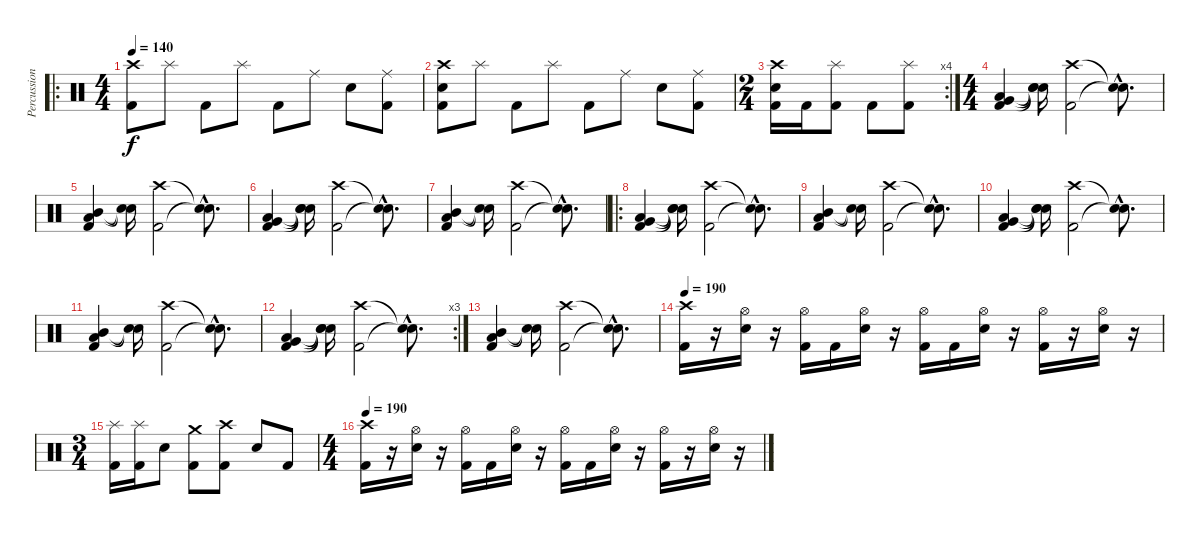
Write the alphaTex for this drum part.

\track ("Percussion" "Percussion") {instrument percussion}
\staff {score}
\articulation defaults
\ro
\ts (4 4)
\tempo 140
\clef neutral
\ks c
("Crash high (hit)" "Kick (hit) 2").8{dy f} "Splash (hit)".8 "Kick (hit) 2".8 "Splash (hit)".8 "Kick (hit) 2".8 "Ride (middle)".8 "Electric Snare (hit)".8 ("Ride (middle)" "Kick (hit) 2").8 |
("Crash high (hit)" "Electric Snare (hit)" "Kick (hit) 2").8 "Splash (hit)".8 "Kick (hit) 2".8 "Splash (hit)".8 "Kick (hit) 2".8 "Ride (middle)".8 "Electric Snare (hit)".8 ("Ride (middle)" "Kick (hit) 2").8 |
\rc 4
\ts (2 4)
("Crash high (hit)" "Electric Snare (hit)" "Kick (hit) 2").16 "Kick (hit) 2".16 ("Splash (hit)" "Kick (hit) 2").8 "Kick (hit) 2".8 ("Splash (hit)" "Kick (hit) 2").8 |
\ts (4 4)
("Very Low Tom (hit)" "Low Floor Tom (hit)" "Kick (hit) 2").4 ("Snare (hit)"{t} "Snare (hit)"{t} "Snare (hit)"{t}).16 ("Crash high (hit)" "Kick (hit) 2").2 ("Snare (hit)"{hac t} "Snare (hit)"{hac t}).8{d} |
("Mid Tom (hit)" "Low Tom (hit)" "Kick (hit) 2").4 ("Snare (hit)"{t} "Snare (hit)"{t}).16 ("Crash high (hit)" "Kick (hit) 2").2 ("Snare (hit)"{hac t} "Snare (hit)"{hac t}).8{d} |
("Very Low Tom (hit)" "Low Floor Tom (hit)" "Kick (hit) 2").4 ("Snare (hit)"{t} "Snare (hit)"{t} "Snare (hit)"{t}).16 ("Crash high (hit)" "Kick (hit) 2").2 ("Snare (hit)"{hac t} "Snare (hit)"{hac t}).8{d} |
("Mid Tom (hit)" "Low Tom (hit)" "Kick (hit) 2").4 ("Snare (hit)"{t} "Snare (hit)"{t}).16 ("Crash high (hit)" "Kick (hit) 2").2 ("Snare (hit)"{hac t} "Snare (hit)"{hac t}).8{d} |
\ro
("Very Low Tom (hit)" "Low Floor Tom (hit)" "Kick (hit) 2").4 ("Snare (hit)"{t} "Snare (hit)"{t} "Snare (hit)"{t}).16 ("Crash high (hit)" "Kick (hit) 2").2 ("Snare (hit)"{hac t} "Snare (hit)"{hac t}).8{d} |
("Mid Tom (hit)" "Low Tom (hit)" "Kick (hit) 2").4 ("Snare (hit)"{t} "Snare (hit)"{t}).16 ("Crash high (hit)" "Kick (hit) 2").2 ("Snare (hit)"{hac t} "Snare (hit)"{hac t}).8{d} |
("Very Low Tom (hit)" "Low Floor Tom (hit)" "Kick (hit) 2").4 ("Snare (hit)"{t} "Snare (hit)"{t} "Snare (hit)"{t}).16 ("Crash high (hit)" "Kick (hit) 2").2 ("Snare (hit)"{hac t} "Snare (hit)"{hac t}).8{d} |
("Mid Tom (hit)" "Low Tom (hit)" "Kick (hit) 2").4 ("Snare (hit)"{t} "Snare (hit)"{t}).16 ("Crash high (hit)" "Kick (hit) 2").2 ("Snare (hit)"{hac t} "Snare (hit)"{hac t}).8{d} |
\rc 3
("Very Low Tom (hit)" "Low Floor Tom (hit)" "Kick (hit) 2").4 ("Snare (hit)"{t} "Snare (hit)"{t} "Snare (hit)"{t}).16 ("Crash high (hit)" "Kick (hit) 2").2 ("Snare (hit)"{hac t} "Snare (hit)"{hac t}).8{d} |
("Mid Tom (hit)" "Low Tom (hit)" "Kick (hit) 2").4 ("Snare (hit)"{t} "Snare (hit)"{t}).16 ("Crash high (hit)" "Kick (hit) 2").2 ("Snare (hit)"{hac t} "Snare (hit)"{hac t}).8{d} |
\tempo 190
("Crash high (hit)" "Kick (hit) 2").16 r.16 ("Hi-Hat (open)" "Electric Snare (hit)").16 r.16 ("Hi-Hat (open)" "Kick (hit) 2").16 "Kick (hit) 2".16 ("Hi-Hat (open)" "Electric Snare (hit)").16 r.16 ("Hi-Hat (open)" "Kick (hit) 2").16 "Kick (hit) 2".16 ("Hi-Hat (open)" "Electric Snare (hit)").16 r.16 ("Hi-Hat (open)" "Kick (hit) 2").16 r.16 ("Hi-Hat (open)" "Electric Snare (hit)").16 r.16 |
\ts (3 4)
("Splash (hit)" "Kick (hit) 2").16 ("Splash (hit)" "Kick (hit) 2").16 "Electric Snare (hit)".8 ("Crash medium (hit)" "Kick (hit) 2").8 ("Crash high (hit)" "Kick (hit) 2").8 "Electric Snare (hit)".8 "Kick (hit) 2".8 |
\ts (4 4)
\tempo 190
("Crash high (hit)" "Kick (hit) 2").16 r.16 ("Hi-Hat (open)" "Electric Snare (hit)").16 r.16 ("Hi-Hat (open)" "Kick (hit) 2").16 "Kick (hit) 2".16 ("Hi-Hat (open)" "Electric Snare (hit)").16 r.16 ("Hi-Hat (open)" "Kick (hit) 2").16 "Kick (hit) 2".16 ("Hi-Hat (open)" "Electric Snare (hit)").16 r.16 ("Hi-Hat (open)" "Kick (hit) 2").16 r.16 ("Hi-Hat (open)" "Electric Snare (hit)").16 r.16
